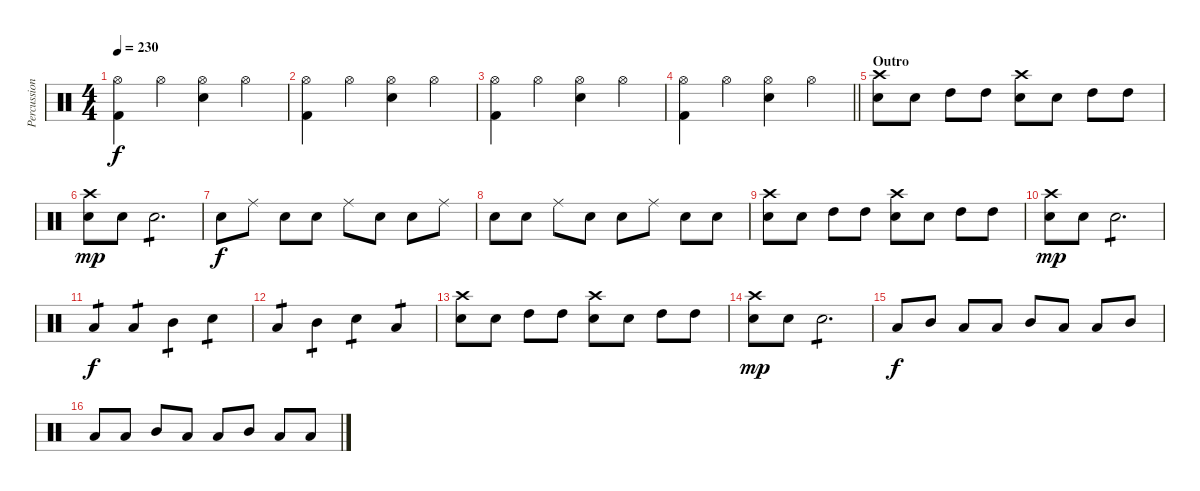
\track ("Percussion" "Percussion") {instrument percussion}
\staff {score}
\articulation defaults
\ts (4 4)
\tempo 230
\clef neutral
\ks c
("Hi-Hat (open)" "Kick (hit) 2").4{dy f} "Hi-Hat (open)".4 ("Hi-Hat (open)" "Snare (hit) 2").4 "Hi-Hat (open)".4 |
("Hi-Hat (open)" "Kick (hit) 2").4 "Hi-Hat (open)".4 ("Hi-Hat (open)" "Snare (hit) 2").4 "Hi-Hat (open)".4 |
("Hi-Hat (open)" "Kick (hit) 2").4 "Hi-Hat (open)".4 ("Hi-Hat (open)" "Snare (hit) 2").4 "Hi-Hat (open)".4 |
\barLineRight lightlight
("Hi-Hat (open)" "Kick (hit) 2").4 "Hi-Hat (open)".4 ("Hi-Hat (open)" "Snare (hit) 2").4 "Hi-Hat (open)".4 |
\section ("" "Outro")
("Crash high (hit)" "Snare (hit) 2").8{volume 12} "Snare (hit) 2".8 "High Tom (hit)".8 "High Tom (hit)".8 ("Crash high (hit)" "Snare (hit) 2").8 "Snare (hit) 2".8 "High Tom (hit)".8 "High Tom (hit)".8 |
("Crash high (hit)" "Snare (hit) 2").8{dy mp} "Snare (hit) 2".8 "Snare (hit) 2".2{d tp 1} |
"Snare (hit) 2".8{dy f} "Ride (middle)".8 "Snare (hit) 2".8 "Snare (hit) 2".8 "Ride (middle)".8 "Snare (hit) 2".8 "Snare (hit) 2".8 "Ride (middle)".8 |
"Snare (hit) 2".8 "Snare (hit) 2".8 "Ride (middle)".8 "Snare (hit) 2".8 "Snare (hit) 2".8 "Ride (middle)".8 "Snare (hit) 2".8 "Snare (hit) 2".8 |
("Crash high (hit)" "Snare (hit) 2").8{volume 12} "Snare (hit) 2".8 "High Tom (hit)".8 "High Tom (hit)".8 ("Crash high (hit)" "Snare (hit) 2").8 "Snare (hit) 2".8 "High Tom (hit)".8 "High Tom (hit)".8 |
("Crash high (hit)" "Snare (hit) 2").8{dy mp} "Snare (hit) 2".8 "Snare (hit) 2".2{d tp 1} |
"Low Floor Tom (hit)".4{tp 1 dy f} "Low Tom (hit)".4{tp 1} "Mid Tom (hit)".4{tp 1} "Snare (hit) 2".4{tp 1} |
"Low Floor Tom (hit)".4{tp 1} "Mid Tom (hit)".4{tp 1} "Snare (hit) 2".4{tp 1} "Low Floor Tom (hit)".4{tp 1} |
("Crash high (hit)" "Snare (hit) 2").8{volume 12} "Snare (hit) 2".8 "High Tom (hit)".8 "High Tom (hit)".8 ("Crash high (hit)" "Snare (hit) 2").8 "Snare (hit) 2".8 "High Tom (hit)".8 "High Tom (hit)".8 |
("Crash high (hit)" "Snare (hit) 2").8{dy mp} "Snare (hit) 2".8 "Snare (hit) 2".2{d tp 1} |
"Low Floor Tom (hit)".8{dy f} "Mid Tom (hit)".8 "Low Floor Tom (hit)".8 "Low Floor Tom (hit)".8 "Mid Tom (hit)".8 "Low Floor Tom (hit)".8 "Low Floor Tom (hit)".8 "Mid Tom (hit)".8 |
"Low Floor Tom (hit)".8 "Low Floor Tom (hit)".8 "Mid Tom (hit)".8 "Low Floor Tom (hit)".8 "Low Floor Tom (hit)".8 "Mid Tom (hit)".8 "Low Floor Tom (hit)".8 "Low Floor Tom (hit)".8
